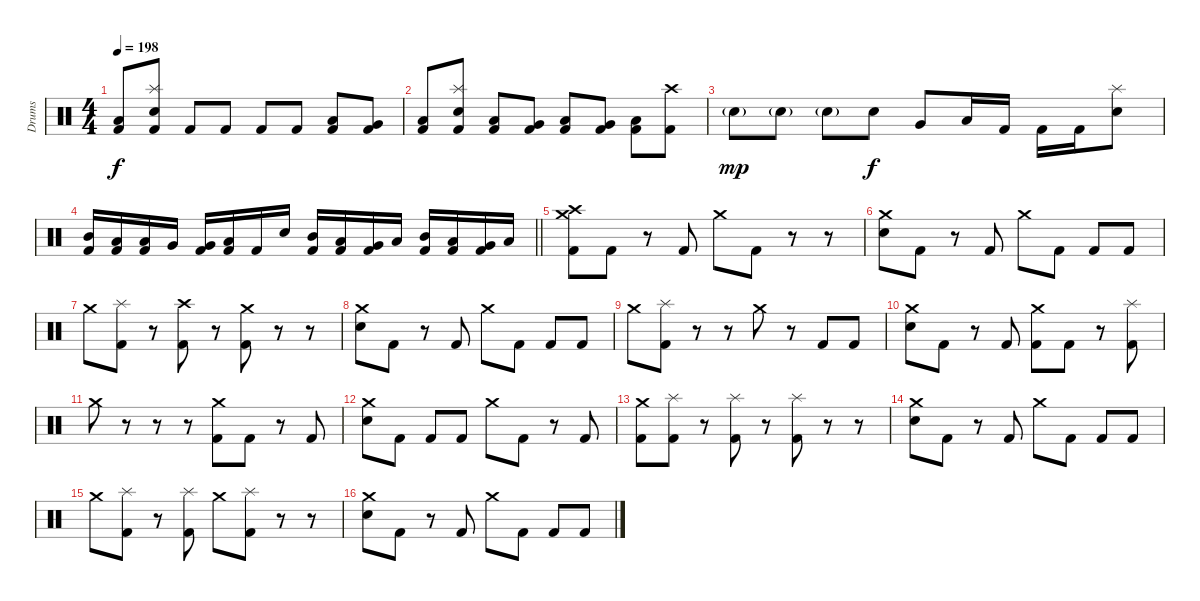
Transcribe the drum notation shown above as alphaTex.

\track ("Drums" "Drums") {instrument percussion}
\staff {score}
\articulation defaults
\ts (4 4)
\tempo 198
\clef neutral
\ks c
("Low Floor Tom (hit)" "Kick (hit) 2").8{dy f} ("Splash (hit)" "Electric Snare (hit)" "Kick (hit) 2").8 "Kick (hit) 2".8 "Kick (hit) 2".8 "Kick (hit) 2".8 "Kick (hit) 2".8 ("Low Floor Tom (hit)" "Kick (hit) 2").8 ("Very Low Tom (hit)" "Kick (hit) 2").8 |
("Low Floor Tom (hit)" "Kick (hit) 2").8 ("Splash (hit)" "Electric Snare (hit)" "Kick (hit) 2").8 ("Low Floor Tom (hit)" "Kick (hit) 2").8 ("Very Low Tom (hit)" "Kick (hit) 2").8 ("Low Floor Tom (hit)" "Kick (hit) 2").8 ("Very Low Tom (hit)" "Kick (hit) 2").8 ("Low Floor Tom (hit)" "Kick (hit) 2").8 ("Crash high (hit)" "Kick (hit) 2").8 |
"Electric Snare (hit)"{g}.8{dy mp} "Electric Snare (hit)"{g}.8 "Electric Snare (hit)"{g}.8 "Electric Snare (hit)".8{dy f} "Very Low Tom (hit)".8 "Low Tom (hit)".16 "Kick (hit) 2".16 "Kick (hit) 2".16 "Kick (hit) 2".16 ("Splash (hit)" "Electric Snare (hit)").8 |
\barLineRight lightlight
("Mid Tom (hit)" "Kick (hit) 2").16 ("Low Tom (hit)" "Kick (hit) 2").16 ("Low Tom (hit)" "Kick (hit) 2").16 "Very Low Tom (hit)".16 ("Very Low Tom (hit)" "Kick (hit) 2").16 ("Low Floor Tom (hit)" "Kick (hit) 2").16 "Kick (hit) 2".16 "Electric Snare (hit)".16 ("Mid Tom (hit)" "Kick (hit) 2").16 ("Low Tom (hit)" "Kick (hit) 2").16 ("Very Low Tom (hit)" "Kick (hit) 2").16 "Low Floor Tom (hit)".16 ("Mid Tom (hit)" "Kick (hit) 2").16 ("Low Tom (hit)" "Kick (hit) 2").16 ("Very Low Tom (hit)" "Kick (hit) 2").16 "Low Floor Tom (hit)".16 |
\section ("" "")
("Crash high (hit)" "Crash medium (hit)" "Kick (hit) 2").8 "Kick (hit) 2".8 r.8 "Kick (hit) 2".8 "Crash medium (hit)".8 "Kick (hit) 2".8 r.8 r.8 |
("Crash medium (hit)" "Electric Snare (hit)").8 "Kick (hit) 2".8 r.8 "Kick (hit) 2".8 "Crash medium (hit)".8 "Kick (hit) 2".8 "Kick (hit) 2".8 "Kick (hit) 2".8 |
"Crash medium (hit)".8 ("Splash (hit)" "Kick (hit) 2").8 r.8 ("Crash high (hit)" "Kick (hit) 2").8 r.8 ("Crash medium (hit)" "Kick (hit) 2").8 r.8 r.8 |
("Crash medium (hit)" "Electric Snare (hit)").8 "Kick (hit) 2".8 r.8 "Kick (hit) 2".8 "Crash medium (hit)".8 "Kick (hit) 2".8 "Kick (hit) 2".8 "Kick (hit) 2".8 |
"Crash medium (hit)".8 ("Splash (hit)" "Kick (hit) 2").8 r.8 r.8 "Crash medium (hit)".8 r.8 "Kick (hit) 2".8 "Kick (hit) 2".8 |
("Crash medium (hit)" "Electric Snare (hit)").8 "Kick (hit) 2".8 r.8 "Kick (hit) 2".8 ("Crash medium (hit)" "Kick (hit) 2").8 "Kick (hit) 2".8 r.8 ("Splash (hit)" "Kick (hit) 2").8 |
"Crash medium (hit)".8 r.8 r.8 r.8 ("Crash medium (hit)" "Kick (hit) 2").8 "Kick (hit) 2".8 r.8 "Kick (hit) 2".8 |
("Crash medium (hit)" "Electric Snare (hit)").8 "Kick (hit) 2".8 "Kick (hit) 2".8 "Kick (hit) 2".8 "Crash medium (hit)".8 "Kick (hit) 2".8 r.8 "Kick (hit) 2".8 |
("Crash medium (hit)" "Kick (hit) 2").8 ("Splash (hit)" "Kick (hit) 2").8 r.8 ("Splash (hit)" "Kick (hit) 2").8 r.8 ("Splash (hit)" "Kick (hit) 2").8 r.8 r.8 |
("Crash medium (hit)" "Electric Snare (hit)").8 "Kick (hit) 2".8 r.8 "Kick (hit) 2".8 "Crash medium (hit)".8 "Kick (hit) 2".8 "Kick (hit) 2".8 "Kick (hit) 2".8 |
"Crash medium (hit)".8 ("Splash (hit)" "Kick (hit) 2").8 r.8 ("Splash (hit)" "Kick (hit) 2").8 "Crash medium (hit)".8 ("Splash (hit)" "Kick (hit) 2").8 r.8 r.8 |
("Crash medium (hit)" "Electric Snare (hit)").8 "Kick (hit) 2".8 r.8 "Kick (hit) 2".8 "Crash medium (hit)".8 "Kick (hit) 2".8 "Kick (hit) 2".8 "Kick (hit) 2".8
